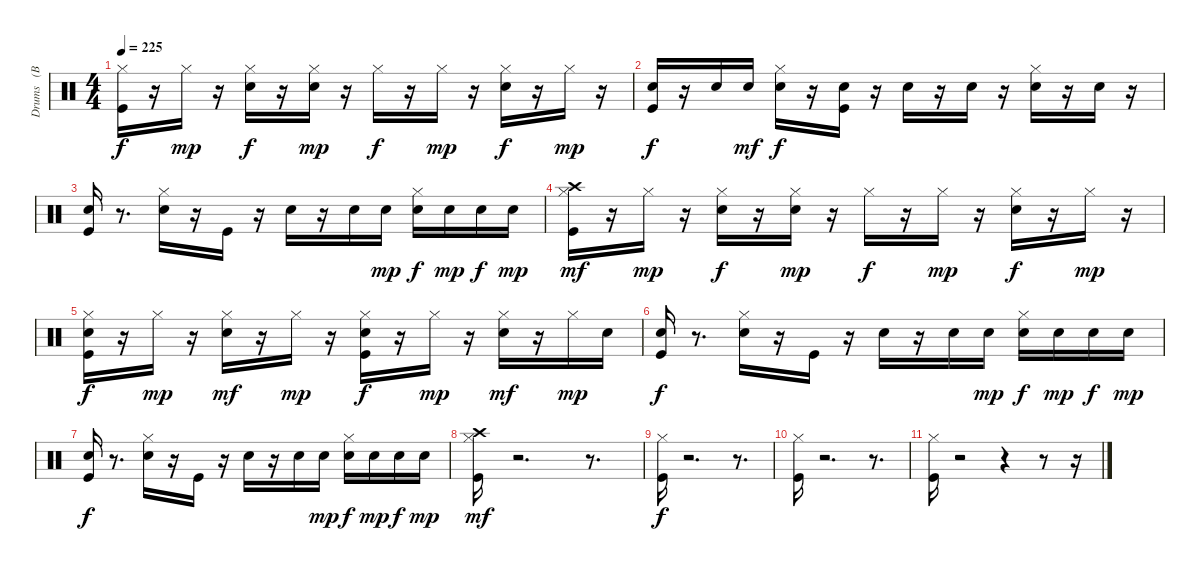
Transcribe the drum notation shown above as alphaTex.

\track ("Drums   (BB)" "Drums   (B") {instrument percussion}
\staff {score}
\articulation defaults
\ts (4 4)
\tempo 225
\clef neutral
\ks c
("Kick (hit)" "Hi-Hat (closed)").16{dy f} r.16 "Hi-Hat (closed)".16{dy mp} r.16 ("Snare (hit) 2" "Hi-Hat (closed)").16{dy f} r.16 ("Snare (hit) 2" "Hi-Hat (closed)").16{dy mp} r.16 "Hi-Hat (closed)".16{dy f} r.16 "Hi-Hat (closed)".16{dy mp} r.16 ("Snare (hit) 2" "Hi-Hat (closed)").16{dy f} r.16 "Hi-Hat (closed)".16{dy mp} r.16 |
("Kick (hit)" "Snare (hit) 2").16{dy f} r.16 "Snare (hit) 2".16 "Snare (hit) 2".16{dy mf} ("Snare (hit) 2" "Hi-Hat (closed)").16{dy f} r.16 ("Kick (hit)" "Snare (hit) 2").16 r.16 "Snare (hit) 2".16 r.16 "Snare (hit) 2".16 r.16 ("Snare (hit) 2" "Hi-Hat (closed)").16 r.16 "Snare (hit) 2".16 r.16 |
("Kick (hit)" "Snare (hit) 2").16 r.8{d} ("Snare (hit) 2" "Hi-Hat (closed)").16 r.16 "Kick (hit)".16 r.16 "Snare (hit) 2".16 r.16 "Snare (hit) 2".16 "Snare (hit) 2".16{dy mp} ("Snare (hit) 2" "Hi-Hat (closed)").16{dy f} "Snare (hit) 2".16{dy mp} "Snare (hit) 2".16{dy f} "Snare (hit) 2".16{dy mp} |
("Kick (hit)" "Hi-Hat (closed)" "Crash high (hit)").16{dy mf} r.16 "Hi-Hat (closed)".16{dy mp} r.16 ("Snare (hit) 2" "Hi-Hat (closed)").16{dy f} r.16 ("Snare (hit) 2" "Hi-Hat (closed)").16{dy mp} r.16 "Hi-Hat (closed)".16{dy f} r.16 "Hi-Hat (closed)".16{dy mp} r.16 ("Snare (hit) 2" "Hi-Hat (closed)").16{dy f} r.16 "Hi-Hat (closed)".16{dy mp} r.16 |
("Kick (hit)" "Snare (hit) 2" "Hi-Hat (closed)").16{dy f} r.16 "Hi-Hat (closed)".16{dy mp} r.16 ("Snare (hit) 2" "Hi-Hat (closed)").16{dy mf} r.16 "Hi-Hat (closed)".16{dy mp} r.16 ("Kick (hit)" "Snare (hit) 2" "Hi-Hat (closed)").16{dy f} r.16 "Hi-Hat (closed)".16{dy mp} r.16 ("Snare (hit) 2" "Hi-Hat (closed)").16{dy mf} r.16 "Hi-Hat (closed)".16{dy mp} "Snare (hit) 2".16 |
("Kick (hit)" "Snare (hit) 2").16{dy f} r.8{d} ("Snare (hit) 2" "Hi-Hat (closed)").16 r.16 "Kick (hit)".16 r.16 "Snare (hit) 2".16 r.16 "Snare (hit) 2".16 "Snare (hit) 2".16{dy mp} ("Snare (hit) 2" "Hi-Hat (closed)").16{dy f} "Snare (hit) 2".16{dy mp} "Snare (hit) 2".16{dy f} "Snare (hit) 2".16{dy mp} |
("Kick (hit)" "Snare (hit) 2").16{dy f} r.8{d} ("Snare (hit) 2" "Hi-Hat (closed)").16 r.16 "Kick (hit)".16 r.16 "Snare (hit) 2".16 r.16 "Snare (hit) 2".16 "Snare (hit) 2".16{dy mp} ("Snare (hit) 2" "Hi-Hat (closed)").16{dy f} "Snare (hit) 2".16{dy mp} "Snare (hit) 2".16{dy f} "Snare (hit) 2".16{dy mp} |
("Kick (hit)" "Hi-Hat (closed)" "Crash high (hit)").16{dy mf} r.2{d} r.8{d} |
("Kick (hit)" "Hi-Hat (closed)").16{dy f} r.2{d} r.8{d} |
("Kick (hit)" "Hi-Hat (closed)").16 r.2{d} r.8{d} |
("Kick (hit)" "Hi-Hat (closed)").16 r.2 r.4 r.8 r.16
